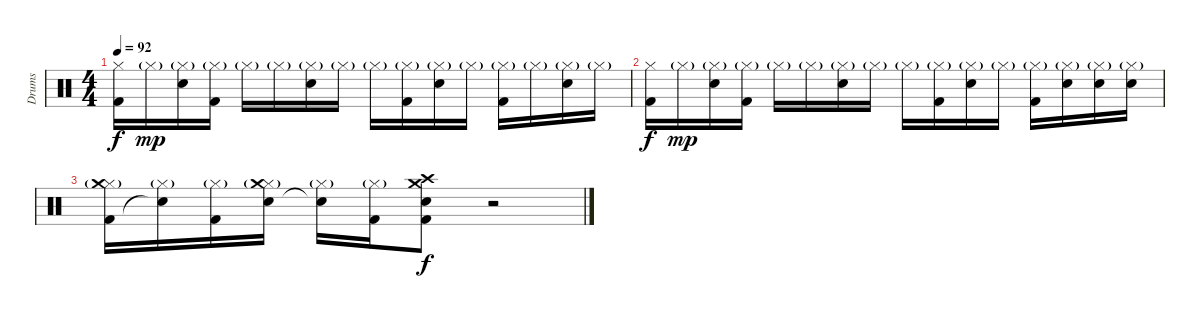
\track ("Drums" "Drums") {instrument percussion}
\staff {score}
\articulation defaults
\ts (4 4)
\tempo 92
\clef neutral
\ks c
("Hi-Hat (closed)" "Kick (hit) 2").16{dy f} "Hi-Hat (closed)"{g}.16{dy mp} ("Hi-Hat (closed)"{g} "Snare (hit) 2").16 ("Hi-Hat (closed)"{g} "Kick (hit) 2").16 "Hi-Hat (closed)"{g}.16 "Hi-Hat (closed)"{g}.16 ("Hi-Hat (closed)"{g} "Snare (hit) 2").16 "Hi-Hat (closed)"{g}.16 "Hi-Hat (closed)"{g}.16 ("Hi-Hat (closed)"{g} "Kick (hit) 2").16 ("Hi-Hat (closed)"{g} "Snare (hit) 2").16 "Hi-Hat (closed)"{g}.16 ("Hi-Hat (closed)"{g} "Kick (hit) 2").16 "Hi-Hat (closed)"{g}.16 ("Hi-Hat (closed)"{g} "Snare (hit) 2").16 "Hi-Hat (closed)"{g}.16 |
("Hi-Hat (closed)" "Kick (hit) 2").16{dy f} "Hi-Hat (closed)"{g}.16{dy mp} ("Hi-Hat (closed)"{g} "Snare (hit) 2").16 ("Hi-Hat (closed)"{g} "Kick (hit) 2").16 "Hi-Hat (closed)"{g}.16 "Hi-Hat (closed)"{g}.16 ("Hi-Hat (closed)"{g} "Snare (hit) 2").16 "Hi-Hat (closed)"{g}.16 "Hi-Hat (closed)"{g}.16 ("Hi-Hat (closed)"{g} "Kick (hit) 2").16 ("Hi-Hat (closed)"{g} "Snare (hit) 2").16 "Hi-Hat (closed)"{g}.16 ("Hi-Hat (closed)"{g} "Kick (hit) 2").16 ("Hi-Hat (closed)"{g} "Snare (hit) 2").16 ("Hi-Hat (closed)"{g} "Snare (hit) 2").16 ("Hi-Hat (closed)"{g} "Snare (hit) 2").16 |
("Hi-Hat (closed)"{g} "Kick (hit) 2" "Crash medium (hit)").16 ("Hi-Hat (closed)"{g} "Snare (hit)"{t}).16 ("Hi-Hat (closed)"{g} "Kick (hit) 2").16 ("Hi-Hat (closed)"{g} "Snare (hit) 2" "Crash medium (hit)").16 ("Hi-Hat (closed)"{g} "Snare (hit)"{t}).16 ("Hi-Hat (closed)"{g} "Kick (hit) 2").16 ("Kick (hit) 2" "Snare (hit) 2" "Crash medium (hit)" "Crash high (hit)").8{dy f} r.2
